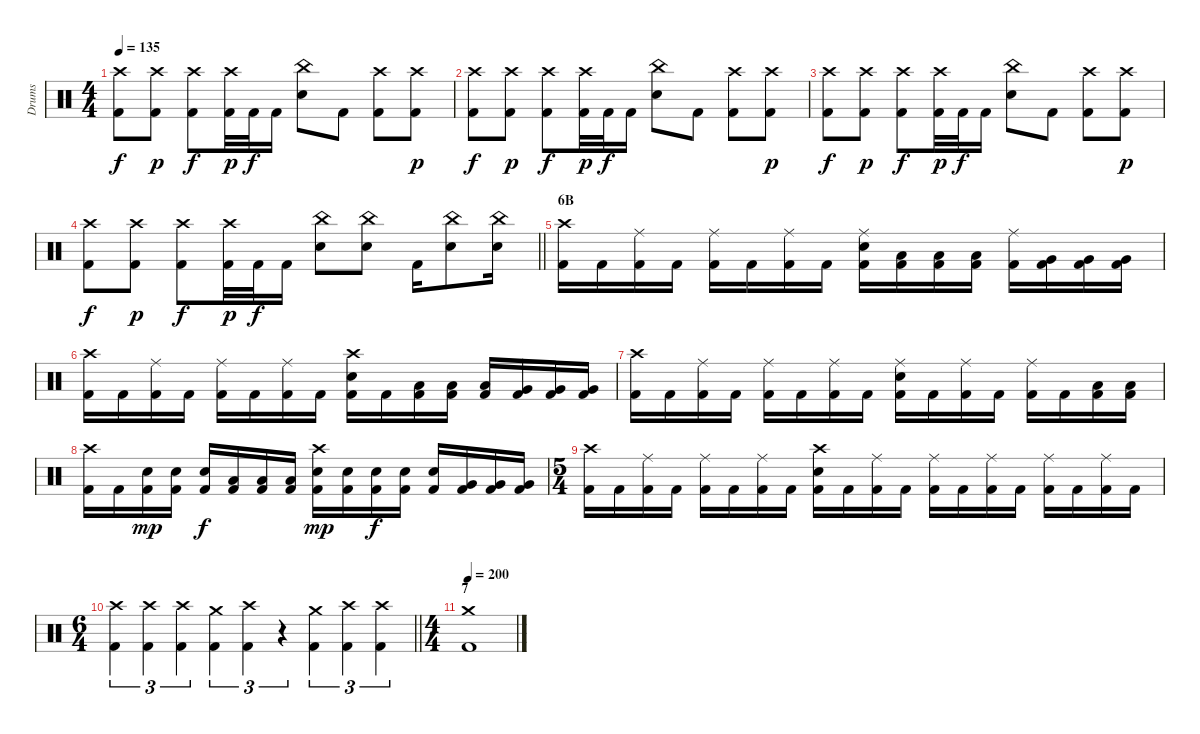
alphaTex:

\track ("Drums" "Drums") {instrument percussion}
\staff {score}
\articulation defaults
\ts (4 4)
\tempo 135
\clef neutral
\ks c
("Crash high (hit)" "Kick (hit) 2").8{dy f} ("Crash high (hit)" "Kick (hit) 2").8{dy p} ("Crash high (hit)" "Kick (hit) 2").8{dy f} ("Crash high (hit)" "Kick (hit) 2").32{dy p} "Kick (hit) 2".32{dy f} "Kick (hit) 2".16 ("China (hit)" "Electric Snare (hit)").8 "Kick (hit) 2".8 ("Crash high (hit)" "Kick (hit) 2").8 ("Crash high (hit)" "Kick (hit) 2").8{dy p} |
("Crash high (hit)" "Kick (hit) 2").8{dy f} ("Crash high (hit)" "Kick (hit) 2").8{dy p} ("Crash high (hit)" "Kick (hit) 2").8{dy f} ("Crash high (hit)" "Kick (hit) 2").32{dy p} "Kick (hit) 2".32{dy f} "Kick (hit) 2".16 ("China (hit)" "Electric Snare (hit)").8 "Kick (hit) 2".8 ("Crash high (hit)" "Kick (hit) 2").8 ("Crash high (hit)" "Kick (hit) 2").8{dy p} |
("Crash high (hit)" "Kick (hit) 2").8{dy f} ("Crash high (hit)" "Kick (hit) 2").8{dy p} ("Crash high (hit)" "Kick (hit) 2").8{dy f} ("Crash high (hit)" "Kick (hit) 2").32{dy p} "Kick (hit) 2".32{dy f} "Kick (hit) 2".16 ("China (hit)" "Electric Snare (hit)").8 "Kick (hit) 2".8 ("Crash high (hit)" "Kick (hit) 2").8 ("Crash high (hit)" "Kick (hit) 2").8{dy p} |
\barLineRight lightlight
("Crash high (hit)" "Kick (hit) 2").8{dy f} ("Crash high (hit)" "Kick (hit) 2").8{dy p} ("Crash high (hit)" "Kick (hit) 2").8{dy f} ("Crash high (hit)" "Kick (hit) 2").32{dy p} "Kick (hit) 2".32{dy f} "Kick (hit) 2".16 ("China (hit)" "Electric Snare (hit)").8 ("China (hit)" "Electric Snare (hit)").8 "Kick (hit) 2".16 ("China (hit)" "Electric Snare (hit)").8 ("China (hit)" "Electric Snare (hit)").16 |
\section ("" "6B")
("Crash high (hit)" "Kick (hit) 2").16 "Kick (hit) 2".16 ("Ride (middle)" "Kick (hit) 2").16 "Kick (hit) 2".16 ("Ride (middle)" "Kick (hit) 2").16 "Kick (hit) 2".16 ("Ride (middle)" "Kick (hit) 2").16 "Kick (hit) 2".16 ("Ride (middle)" "Electric Snare (hit)" "Kick (hit) 2").16 ("Low Tom (hit)" "Kick (hit) 2").16 ("Low Tom (hit)" "Kick (hit) 2").16 ("Low Tom (hit)" "Kick (hit) 2").16 ("Ride (middle)" "Kick (hit) 2").16 ("Very Low Tom (hit)" "Kick (hit) 2").16 ("Very Low Tom (hit)" "Kick (hit) 2").16 ("Very Low Tom (hit)" "Kick (hit) 2").16 |
("Crash high (hit)" "Kick (hit) 2").16 "Kick (hit) 2".16 ("Ride (middle)" "Kick (hit) 2").16 "Kick (hit) 2".16 ("Ride (middle)" "Kick (hit) 2").16 "Kick (hit) 2".16 ("Ride (middle)" "Kick (hit) 2").16 "Kick (hit) 2".16 ("Crash high (hit)" "Electric Snare (hit)" "Kick (hit) 2").16 "Kick (hit) 2".16 ("Low Tom (hit)" "Kick (hit) 2").16 ("Low Tom (hit)" "Kick (hit) 2").16 ("Low Tom (hit)" "Kick (hit) 2").16 ("Very Low Tom (hit)" "Kick (hit) 2").16 ("Very Low Tom (hit)" "Kick (hit) 2").16 ("Very Low Tom (hit)" "Kick (hit) 2").16 |
("Crash high (hit)" "Kick (hit) 2").16 "Kick (hit) 2".16 ("Ride (middle)" "Kick (hit) 2").16 "Kick (hit) 2".16 ("Ride (middle)" "Kick (hit) 2").16 "Kick (hit) 2".16 ("Ride (middle)" "Kick (hit) 2").16 "Kick (hit) 2".16 ("Ride (middle)" "Electric Snare (hit)" "Kick (hit) 2").16 "Kick (hit) 2".16 ("Ride (middle)" "Kick (hit) 2").16 "Kick (hit) 2".16 ("Ride (middle)" "Kick (hit) 2").16 "Kick (hit) 2".16 ("Low Tom (hit)" "Kick (hit) 2").16 ("Low Tom (hit)" "Kick (hit) 2").16 |
("Crash high (hit)" "Kick (hit) 2").16 "Kick (hit) 2".16 ("Electric Snare (hit)" "Kick (hit) 2").16{dy mp} ("Electric Snare (hit)" "Kick (hit) 2").16 ("Electric Snare (hit)" "Kick (hit) 2").16{dy f} ("Low Tom (hit)" "Kick (hit) 2").16 ("Low Tom (hit)" "Kick (hit) 2").16 ("Low Tom (hit)" "Kick (hit) 2").16 ("Crash high (hit)" "Electric Snare (hit)" "Kick (hit) 2").16{dy mp} ("Electric Snare (hit)" "Kick (hit) 2").16 ("Electric Snare (hit)" "Kick (hit) 2").16{dy f} ("Electric Snare (hit)" "Kick (hit) 2").16 ("Electric Snare (hit)" "Kick (hit) 2").16 ("Very Low Tom (hit)" "Kick (hit) 2").16 ("Very Low Tom (hit)" "Kick (hit) 2").16 ("Very Low Tom (hit)" "Kick (hit) 2").16 |
\ts (5 4)
("Crash high (hit)" "Kick (hit) 2").16 "Kick (hit) 2".16 ("Ride (middle)" "Kick (hit) 2").16 "Kick (hit) 2".16 ("Ride (middle)" "Kick (hit) 2").16 "Kick (hit) 2".16 ("Ride (middle)" "Kick (hit) 2").16 "Kick (hit) 2".16 ("Crash high (hit)" "Electric Snare (hit)" "Kick (hit) 2").16 "Kick (hit) 2".16 ("Ride (middle)" "Kick (hit) 2").16 "Kick (hit) 2".16 ("Ride (middle)" "Kick (hit) 2").16 "Kick (hit) 2".16 ("Ride (middle)" "Kick (hit) 2").16 "Kick (hit) 2".16 ("Ride (middle)" "Kick (hit) 2").16 "Kick (hit) 2".16 ("Ride (middle)" "Kick (hit) 2").16 "Kick (hit) 2".16 |
\ts (6 4)
\barLineRight lightlight
("Crash high (hit)" "Kick (hit) 2").4{tu (3 2)} ("Crash high (hit)" "Kick (hit) 2").4{tu (3 2)} ("Crash high (hit)" "Kick (hit) 2").4{tu (3 2)} ("Crash medium (hit)" "Kick (hit) 2").4{tu (3 2)} ("Crash high (hit)" "Kick (hit) 2").4{tu (3 2)} r.4{tu (3 2)} ("Crash medium (hit)" "Kick (hit) 2").4{tu (3 2)} ("Crash high (hit)" "Kick (hit) 2").4{tu (3 2)} ("Crash high (hit)" "Kick (hit) 2").4{tu (3 2)} |
\ts (4 4)
\section ("" "7")
\tempo 200
("Crash medium (hit)" "Kick (hit) 2").1
